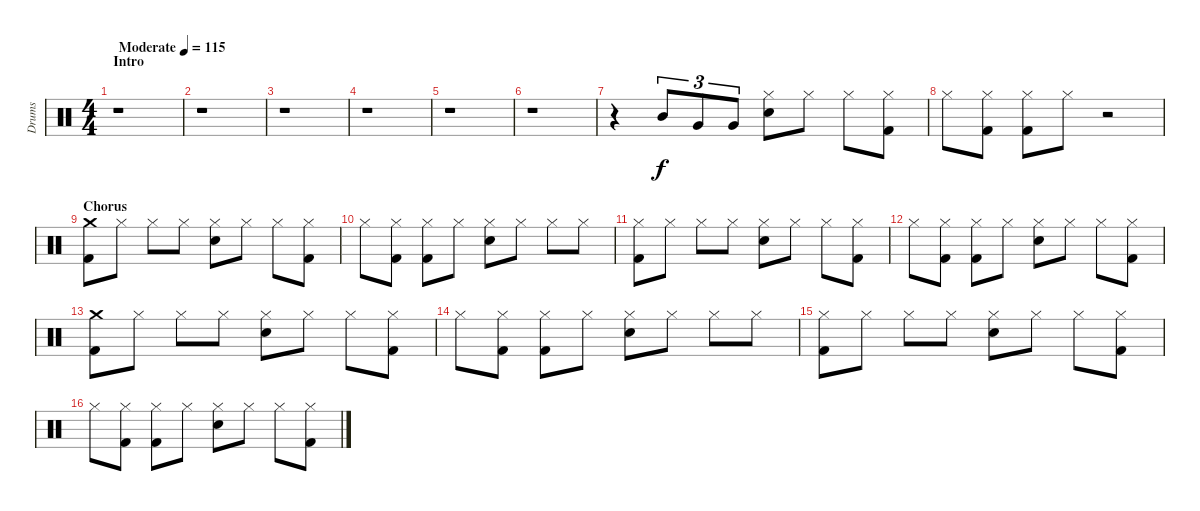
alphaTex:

\track ("Drums" "Drums") {instrument percussion}
\staff {score}
\articulation defaults
\ts (4 4)
\section ("" "Intro")
\tempo (115 "Moderate")
\clef neutral
\ks c
r.1{dy f} |
r.1 |
r.1 |
r.1 |
r.1 |
r.1 |
r.4 "Mid Tom (hit)".8{tu (3 2)} "Very Low Tom (hit)".8{tu (3 2)} "Very Low Tom (hit)".8{tu (3 2)} ("Hi-Hat (closed)" "Snare (hit) 2").8 "Hi-Hat (closed)".8 "Hi-Hat (closed)".8 ("Hi-Hat (closed)" "Kick (hit) 2").8 |
"Hi-Hat (closed)".8 ("Hi-Hat (closed)" "Kick (hit) 2").8 ("Hi-Hat (closed)" "Kick (hit) 2").8 "Hi-Hat (closed)".8 r.2 |
\section ("" "Chorus")
("Crash medium (hit)" "Kick (hit) 2").8 "Hi-Hat (closed)".8 "Hi-Hat (closed)".8 "Hi-Hat (closed)".8 ("Hi-Hat (closed)" "Snare (hit) 2").8 "Hi-Hat (closed)".8 "Hi-Hat (closed)".8 ("Hi-Hat (closed)" "Kick (hit) 2").8 |
"Hi-Hat (closed)".8 ("Hi-Hat (closed)" "Kick (hit) 2").8 ("Hi-Hat (closed)" "Kick (hit) 2").8 "Hi-Hat (closed)".8 ("Hi-Hat (closed)" "Snare (hit) 2").8 "Hi-Hat (closed)".8 "Hi-Hat (closed)".8 "Hi-Hat (closed)".8 |
("Hi-Hat (closed)" "Kick (hit) 2").8 "Hi-Hat (closed)".8 "Hi-Hat (closed)".8 "Hi-Hat (closed)".8 ("Hi-Hat (closed)" "Snare (hit) 2").8 "Hi-Hat (closed)".8 "Hi-Hat (closed)".8 ("Hi-Hat (closed)" "Kick (hit) 2").8 |
"Hi-Hat (closed)".8 ("Hi-Hat (closed)" "Kick (hit) 2").8 ("Hi-Hat (closed)" "Kick (hit) 2").8 "Hi-Hat (closed)".8 ("Hi-Hat (closed)" "Snare (hit) 2").8 "Hi-Hat (closed)".8 "Hi-Hat (closed)".8 ("Hi-Hat (closed)" "Kick (hit) 2").8 |
("Crash medium (hit)" "Kick (hit) 2").8 "Hi-Hat (closed)".8 "Hi-Hat (closed)".8 "Hi-Hat (closed)".8 ("Hi-Hat (closed)" "Snare (hit) 2").8 "Hi-Hat (closed)".8 "Hi-Hat (closed)".8 ("Hi-Hat (closed)" "Kick (hit) 2").8 |
"Hi-Hat (closed)".8 ("Hi-Hat (closed)" "Kick (hit) 2").8 ("Hi-Hat (closed)" "Kick (hit) 2").8 "Hi-Hat (closed)".8 ("Hi-Hat (closed)" "Snare (hit) 2").8 "Hi-Hat (closed)".8 "Hi-Hat (closed)".8 "Hi-Hat (closed)".8 |
("Hi-Hat (closed)" "Kick (hit) 2").8 "Hi-Hat (closed)".8 "Hi-Hat (closed)".8 "Hi-Hat (closed)".8 ("Hi-Hat (closed)" "Snare (hit) 2").8 "Hi-Hat (closed)".8 "Hi-Hat (closed)".8 ("Hi-Hat (closed)" "Kick (hit) 2").8 |
"Hi-Hat (closed)".8 ("Hi-Hat (closed)" "Kick (hit) 2").8 ("Hi-Hat (closed)" "Kick (hit) 2").8 "Hi-Hat (closed)".8 ("Hi-Hat (closed)" "Snare (hit) 2").8 "Hi-Hat (closed)".8 "Hi-Hat (closed)".8 ("Hi-Hat (closed)" "Kick (hit) 2").8
